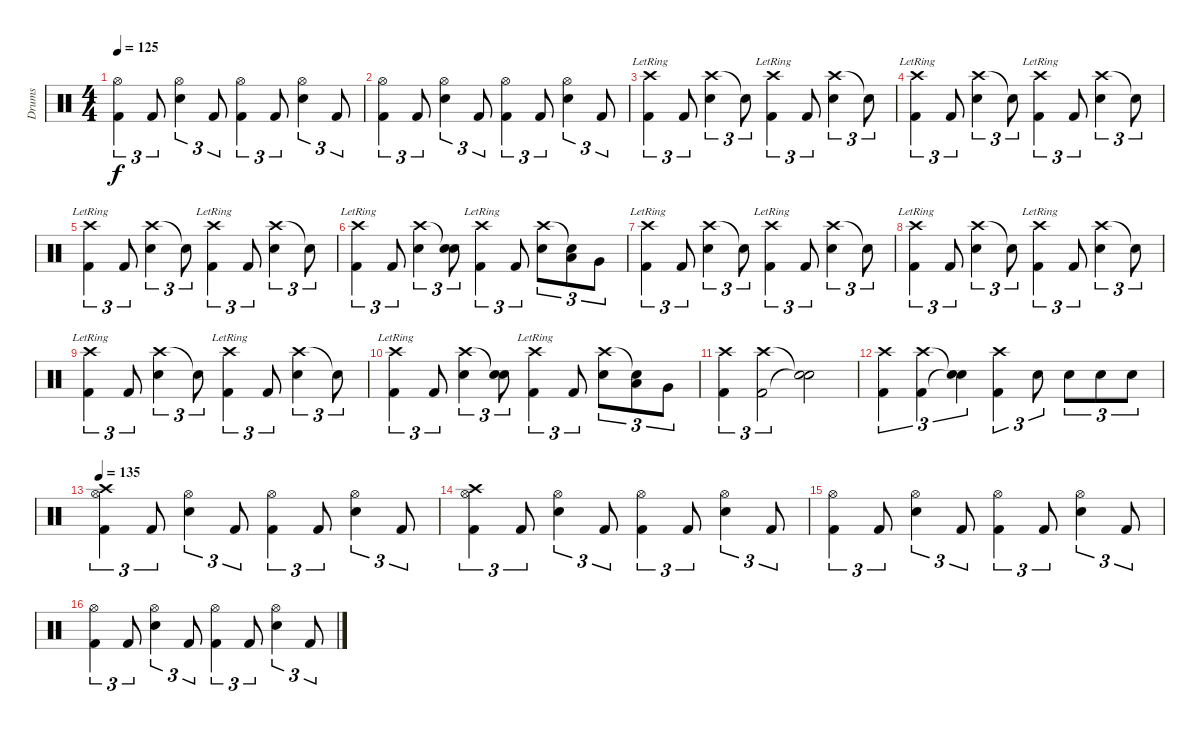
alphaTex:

\track ("Drums" "Drums") {instrument percussion}
\staff {score}
\articulation defaults
\ts (4 4)
\tempo 125
\clef neutral
\ks c
("Hi-Hat (open)" "Kick (hit) 2").4{tu (3 2) dy f} "Kick (hit) 2".8{tu (3 2)} ("Hi-Hat (open)" "Electric Snare (hit)").4{tu (3 2)} "Kick (hit) 2".8{tu (3 2)} ("Hi-Hat (open)" "Kick (hit) 2").4{tu (3 2)} "Kick (hit) 2".8{tu (3 2)} ("Hi-Hat (open)" "Electric Snare (hit)").4{tu (3 2)} "Kick (hit) 2".8{tu (3 2)} |
("Hi-Hat (open)" "Kick (hit) 2").4{tu (3 2)} "Kick (hit) 2".8{tu (3 2)} ("Hi-Hat (open)" "Electric Snare (hit)").4{tu (3 2)} "Kick (hit) 2".8{tu (3 2)} ("Hi-Hat (open)" "Kick (hit) 2").4{tu (3 2)} "Kick (hit) 2".8{tu (3 2)} ("Hi-Hat (open)" "Electric Snare (hit)").4{tu (3 2)} "Kick (hit) 2".8{tu (3 2)} |
("Crash high (hit)"{lr} "Kick (hit) 2").4{tu (3 2)} "Kick (hit) 2".8{tu (3 2)} ("Crash high (hit)" "Electric Snare (hit)").4{tu (3 2)} "Snare (hit)"{t}.8{tu (3 2)} ("Crash high (hit)"{lr} "Kick (hit) 2").4{tu (3 2)} "Kick (hit) 2".8{tu (3 2)} ("Crash high (hit)" "Electric Snare (hit)").4{tu (3 2)} "Snare (hit)"{t}.8{tu (3 2)} |
("Crash high (hit)"{lr} "Kick (hit) 2").4{tu (3 2)} "Kick (hit) 2".8{tu (3 2)} ("Crash high (hit)" "Electric Snare (hit)").4{tu (3 2)} "Snare (hit)"{t}.8{tu (3 2)} ("Crash high (hit)"{lr} "Kick (hit) 2").4{tu (3 2)} "Kick (hit) 2".8{tu (3 2)} ("Crash high (hit)" "Electric Snare (hit)").4{tu (3 2)} "Snare (hit)"{t}.8{tu (3 2)} |
("Crash high (hit)"{lr} "Kick (hit) 2").4{tu (3 2)} "Kick (hit) 2".8{tu (3 2)} ("Crash high (hit)" "Electric Snare (hit)").4{tu (3 2)} "Snare (hit)"{t}.8{tu (3 2)} ("Crash high (hit)"{lr} "Kick (hit) 2").4{tu (3 2)} "Kick (hit) 2".8{tu (3 2)} ("Crash high (hit)" "Electric Snare (hit)").4{tu (3 2)} "Snare (hit)"{t}.8{tu (3 2)} |
("Crash high (hit)"{lr} "Kick (hit) 2").4{tu (3 2)} "Kick (hit) 2".8{tu (3 2)} ("Crash high (hit)" "Electric Snare (hit)").4{tu (3 2)} ("Snare (hit)"{t} "Electric Snare (hit)").8{tu (3 2)} ("Crash high (hit)"{lr} "Kick (hit) 2").4{tu (3 2)} "Kick (hit) 2".8{tu (3 2)} ("Crash high (hit)" "Electric Snare (hit)").8{tu (3 2)} ("Snare (hit)"{t} "Low Tom (hit)").8{tu (3 2) volume 16} "Very Low Tom (hit)".8{tu (3 2)} |
("Crash high (hit)"{lr} "Kick (hit) 2").4{tu (3 2) volume 13} "Kick (hit) 2".8{tu (3 2)} ("Crash high (hit)" "Electric Snare (hit)").4{tu (3 2)} "Snare (hit)"{t}.8{tu (3 2)} ("Crash high (hit)"{lr} "Kick (hit) 2").4{tu (3 2)} "Kick (hit) 2".8{tu (3 2)} ("Crash high (hit)" "Electric Snare (hit)").4{tu (3 2)} "Snare (hit)"{t}.8{tu (3 2)} |
("Crash high (hit)"{lr} "Kick (hit) 2").4{tu (3 2)} "Kick (hit) 2".8{tu (3 2)} ("Crash high (hit)" "Electric Snare (hit)").4{tu (3 2)} "Snare (hit)"{t}.8{tu (3 2)} ("Crash high (hit)"{lr} "Kick (hit) 2").4{tu (3 2)} "Kick (hit) 2".8{tu (3 2)} ("Crash high (hit)" "Electric Snare (hit)").4{tu (3 2)} "Snare (hit)"{t}.8{tu (3 2)} |
("Crash high (hit)"{lr} "Kick (hit) 2").4{tu (3 2)} "Kick (hit) 2".8{tu (3 2)} ("Crash high (hit)" "Electric Snare (hit)").4{tu (3 2)} "Snare (hit)"{t}.8{tu (3 2)} ("Crash high (hit)"{lr} "Kick (hit) 2").4{tu (3 2)} "Kick (hit) 2".8{tu (3 2)} ("Crash high (hit)" "Electric Snare (hit)").4{tu (3 2)} "Snare (hit)"{t}.8{tu (3 2)} |
("Crash high (hit)"{lr} "Kick (hit) 2").4{tu (3 2)} "Kick (hit) 2".8{tu (3 2)} ("Crash high (hit)" "Electric Snare (hit)").4{tu (3 2)} ("Snare (hit)"{t} "Electric Snare (hit)").8{tu (3 2)} ("Crash high (hit)"{lr} "Kick (hit) 2").4{tu (3 2)} "Kick (hit) 2".8{tu (3 2)} ("Crash high (hit)" "Electric Snare (hit)").8{tu (3 2)} ("Snare (hit)"{t} "Low Tom (hit)").8{tu (3 2) volume 16} "Very Low Tom (hit)".8{tu (3 2)} |
("Crash high (hit)" "Kick (hit) 2").4{tu (3 2)} ("Crash high (hit)" "Kick (hit) 2").2{tu (3 2)} ("Snare (hit)"{t} "Snare (hit)"{t}).2 |
("Crash high (hit)" "Kick (hit) 2").4{tu (3 2)} ("Crash high (hit)" "Kick (hit) 2").4{tu (3 2)} ("Snare (hit)"{t} "Snare (hit)"{t}).4{tu (3 2)} ("Crash high (hit)" "Kick (hit) 2").4{tu (3 2)} "Electric Snare (hit)".8{tu (3 2)} "Electric Snare (hit)".8{tu (3 2)} "Electric Snare (hit)".8{tu (3 2)} "Electric Snare (hit)".8{tu (3 2)} |
\tempo 135
("Crash high (hit)" "Hi-Hat (open)" "Kick (hit) 2").4{tu (3 2)} "Kick (hit) 2".8{tu (3 2)} ("Hi-Hat (open)" "Electric Snare (hit)").4{tu (3 2)} "Kick (hit) 2".8{tu (3 2)} ("Hi-Hat (open)" "Kick (hit) 2").4{tu (3 2)} "Kick (hit) 2".8{tu (3 2)} ("Hi-Hat (open)" "Electric Snare (hit)").4{tu (3 2)} "Kick (hit) 2".8{tu (3 2)} |
("Crash high (hit)" "Hi-Hat (open)" "Kick (hit) 2").4{tu (3 2)} "Kick (hit) 2".8{tu (3 2)} ("Hi-Hat (open)" "Electric Snare (hit)").4{tu (3 2)} "Kick (hit) 2".8{tu (3 2)} ("Hi-Hat (open)" "Kick (hit) 2").4{tu (3 2)} "Kick (hit) 2".8{tu (3 2)} ("Hi-Hat (open)" "Electric Snare (hit)").4{tu (3 2)} "Kick (hit) 2".8{tu (3 2)} |
("Hi-Hat (open)" "Kick (hit) 2").4{tu (3 2)} "Kick (hit) 2".8{tu (3 2)} ("Hi-Hat (open)" "Electric Snare (hit)").4{tu (3 2)} "Kick (hit) 2".8{tu (3 2)} ("Hi-Hat (open)" "Kick (hit) 2").4{tu (3 2)} "Kick (hit) 2".8{tu (3 2)} ("Hi-Hat (open)" "Electric Snare (hit)").4{tu (3 2)} "Kick (hit) 2".8{tu (3 2)} |
("Hi-Hat (open)" "Kick (hit) 2").4{tu (3 2)} "Kick (hit) 2".8{tu (3 2)} ("Hi-Hat (open)" "Electric Snare (hit)").4{tu (3 2)} "Kick (hit) 2".8{tu (3 2)} ("Hi-Hat (open)" "Kick (hit) 2").4{tu (3 2)} "Kick (hit) 2".8{tu (3 2)} ("Hi-Hat (open)" "Electric Snare (hit)").4{tu (3 2)} "Kick (hit) 2".8{tu (3 2)}
